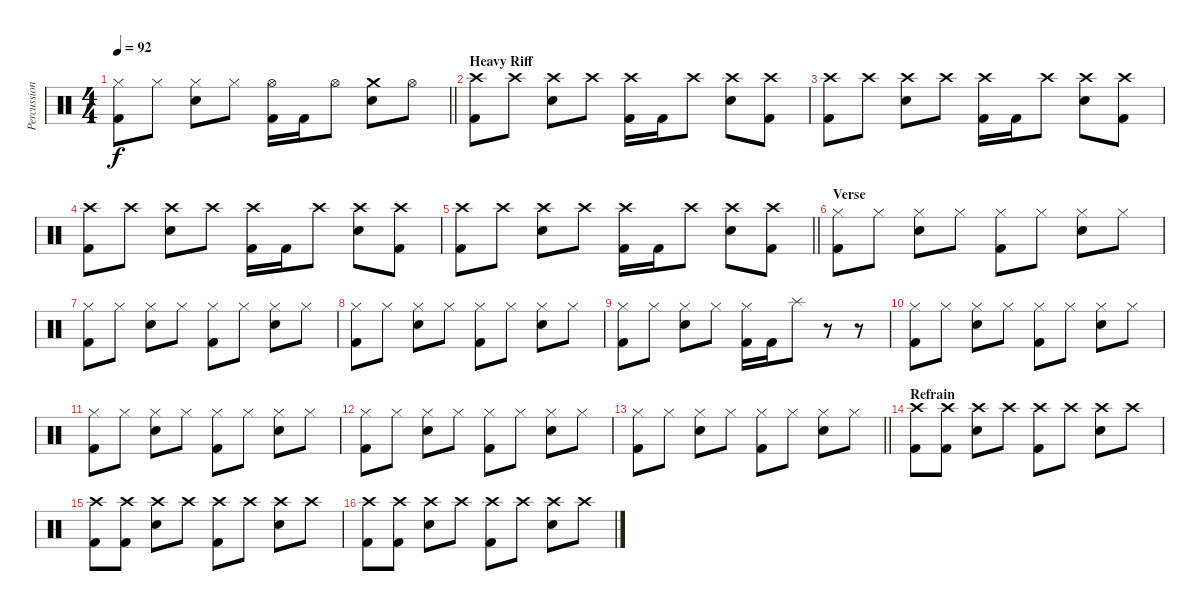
\track ("Percussion" "Percussion") {instrument percussion}
\staff {score}
\articulation defaults
\ts (4 4)
\tempo 92
\clef neutral
\barLineRight lightlight
\ks c
("Kick (hit) 2" "Hi-Hat (closed)").8{dy f} "Hi-Hat (closed)".8 ("Electric Snare (hit)" "Hi-Hat (closed)").8 "Hi-Hat (closed)".8 ("Kick (hit) 2" "Hi-Hat (open)").16 "Kick (hit) 2".16 "Hi-Hat (open)".8 ("Snare (hit) 2" "Crash medium (hit)").8 "Hi-Hat (open)".8 |
\section ("" "Heavy Riff")
("Kick (hit) 2" "Crash high (hit)").8 "Crash high (hit)".8 ("Snare (hit) 2" "Crash high (hit)").8 "Crash high (hit)".8 ("Kick (hit) 2" "Crash high (hit)").16 "Kick (hit) 2".16 "Crash high (hit)".8 ("Snare (hit) 2" "Crash high (hit)").8 ("Kick (hit) 2" "Crash high (hit)").8 |
("Kick (hit) 2" "Crash high (hit)").8 "Crash high (hit)".8 ("Snare (hit) 2" "Crash high (hit)").8 "Crash high (hit)".8 ("Kick (hit) 2" "Crash high (hit)").16 "Kick (hit) 2".16 "Crash high (hit)".8 ("Snare (hit) 2" "Crash high (hit)").8 ("Kick (hit) 2" "Crash high (hit)").8 |
("Kick (hit) 2" "Crash high (hit)").8 "Crash high (hit)".8 ("Snare (hit) 2" "Crash high (hit)").8 "Crash high (hit)".8 ("Kick (hit) 2" "Crash high (hit)").16 "Kick (hit) 2".16 "Crash high (hit)".8 ("Snare (hit) 2" "Crash high (hit)").8 ("Kick (hit) 2" "Crash high (hit)").8 |
\barLineRight lightlight
("Kick (hit) 2" "Crash high (hit)").8 "Crash high (hit)".8 ("Snare (hit) 2" "Crash high (hit)").8 "Crash high (hit)".8 ("Kick (hit) 2" "Crash high (hit)").16 "Kick (hit) 2".16 "Crash high (hit)".8 ("Snare (hit) 2" "Crash high (hit)").8 ("Kick (hit) 2" "Crash high (hit)").8 |
\section ("" "Verse")
("Kick (hit) 2" "Hi-Hat (closed)").8 "Hi-Hat (closed)".8 ("Electric Snare (hit)" "Hi-Hat (closed)").8 "Hi-Hat (closed)".8 ("Kick (hit) 2" "Hi-Hat (closed)").8 "Hi-Hat (closed)".8 ("Electric Snare (hit)" "Hi-Hat (closed)").8 "Hi-Hat (closed)".8 |
("Kick (hit) 2" "Hi-Hat (closed)").8 "Hi-Hat (closed)".8 ("Electric Snare (hit)" "Hi-Hat (closed)").8 "Hi-Hat (closed)".8 ("Kick (hit) 2" "Hi-Hat (closed)").8 "Hi-Hat (closed)".8 ("Electric Snare (hit)" "Hi-Hat (closed)").8 "Hi-Hat (closed)".8 |
("Kick (hit) 2" "Hi-Hat (closed)").8 "Hi-Hat (closed)".8 ("Electric Snare (hit)" "Hi-Hat (closed)").8 "Hi-Hat (closed)".8 ("Kick (hit) 2" "Hi-Hat (closed)").8 "Hi-Hat (closed)".8 ("Electric Snare (hit)" "Hi-Hat (closed)").8 "Hi-Hat (closed)".8 |
("Kick (hit) 2" "Hi-Hat (closed)").8 "Hi-Hat (closed)".8 ("Electric Snare (hit)" "Hi-Hat (closed)").8 "Hi-Hat (closed)".8 ("Kick (hit) 2" "Hi-Hat (closed)").16 "Kick (hit) 2".16 "Splash (hit)".8 r.8 r.8 |
("Kick (hit) 2" "Hi-Hat (closed)").8 "Hi-Hat (closed)".8 ("Electric Snare (hit)" "Hi-Hat (closed)").8 "Hi-Hat (closed)".8 ("Kick (hit) 2" "Hi-Hat (closed)").8 "Hi-Hat (closed)".8 ("Electric Snare (hit)" "Hi-Hat (closed)").8 "Hi-Hat (closed)".8 |
("Kick (hit) 2" "Hi-Hat (closed)").8 "Hi-Hat (closed)".8 ("Electric Snare (hit)" "Hi-Hat (closed)").8 "Hi-Hat (closed)".8 ("Kick (hit) 2" "Hi-Hat (closed)").8 "Hi-Hat (closed)".8 ("Electric Snare (hit)" "Hi-Hat (closed)").8 "Hi-Hat (closed)".8 |
("Kick (hit) 2" "Hi-Hat (closed)").8 "Hi-Hat (closed)".8 ("Electric Snare (hit)" "Hi-Hat (closed)").8 "Hi-Hat (closed)".8 ("Kick (hit) 2" "Hi-Hat (closed)").8 "Hi-Hat (closed)".8 ("Electric Snare (hit)" "Hi-Hat (closed)").8 "Hi-Hat (closed)".8 |
\barLineRight lightlight
("Kick (hit) 2" "Hi-Hat (closed)").8 "Hi-Hat (closed)".8 ("Electric Snare (hit)" "Hi-Hat (closed)").8 "Hi-Hat (closed)".8 ("Kick (hit) 2" "Hi-Hat (closed)").8 "Hi-Hat (closed)".8 ("Electric Snare (hit)" "Hi-Hat (closed)").8 "Hi-Hat (closed)".8 |
\section ("" "Refrain")
("Kick (hit) 2" "Crash high (hit)").8 ("Kick (hit) 2" "Crash high (hit)").8 ("Snare (hit) 2" "Crash high (hit)").8 "Crash high (hit)".8 ("Kick (hit) 2" "Crash high (hit)").8 "Crash high (hit)".8 ("Snare (hit) 2" "Crash high (hit)").8 "Crash high (hit)".8 |
("Kick (hit) 2" "Crash high (hit)").8 ("Kick (hit) 2" "Crash high (hit)").8 ("Snare (hit) 2" "Crash high (hit)").8 "Crash high (hit)".8 ("Kick (hit) 2" "Crash high (hit)").8 "Crash high (hit)".8 ("Snare (hit) 2" "Crash high (hit)").8 "Crash high (hit)".8 |
("Kick (hit) 2" "Crash high (hit)").8 ("Kick (hit) 2" "Crash high (hit)").8 ("Snare (hit) 2" "Crash high (hit)").8 "Crash high (hit)".8 ("Kick (hit) 2" "Crash high (hit)").8 "Crash high (hit)".8 ("Snare (hit) 2" "Crash high (hit)").8 "Crash high (hit)".8
